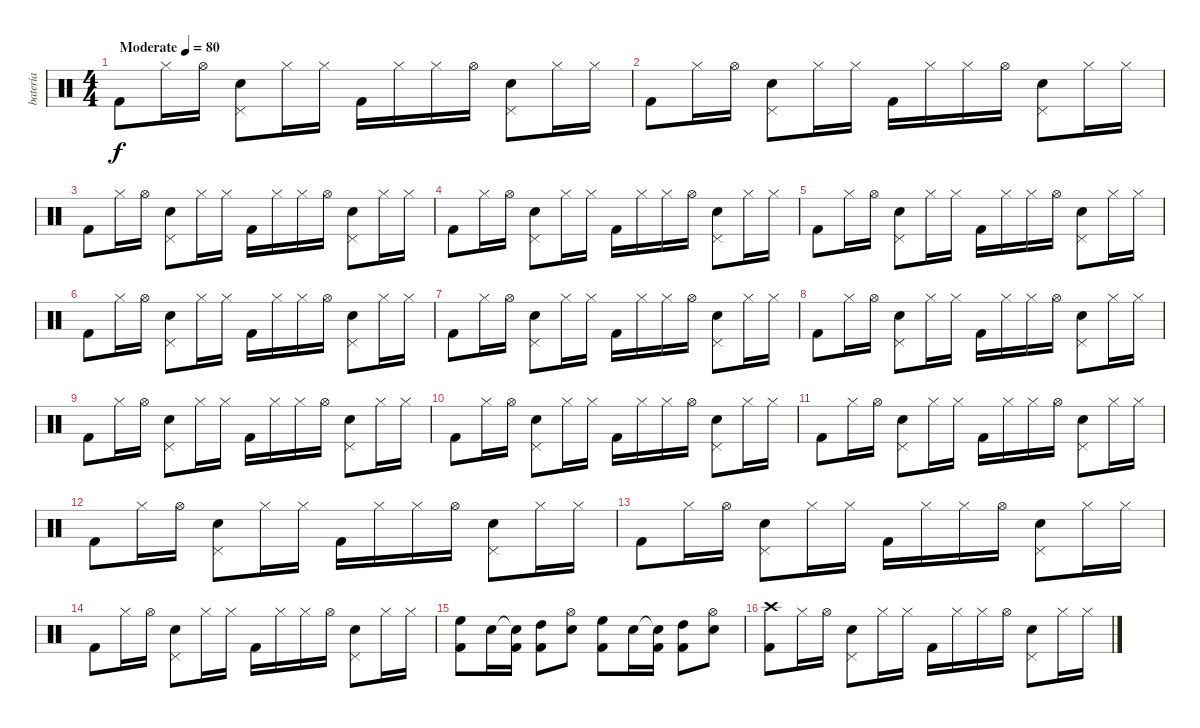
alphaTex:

\track ("batería" "batería") {instrument percussion}
\staff {score}
\articulation defaults
\ts (4 4)
\tempo (80 "Moderate")
\clef neutral
\ks c "Kick (hit) 2".8{dy f} "Hi-Hat (closed)".16 "Hi-Hat (open)".16
("Snare (hit) 2" "Pedal Hi-Hat (hit)").8 "Hi-Hat (closed)".16 "Hi-Hat (closed)".16 "Kick (hit) 2".16 "Hi-Hat (closed)".16 "Hi-Hat (closed)".16 "Hi-Hat (open)".16 ("Snare (hit) 2" "Pedal Hi-Hat (hit)").8 "Hi-Hat (closed)".16 "Hi-Hat (closed)".16 |
"Kick (hit) 2".8 "Hi-Hat (closed)".16 "Hi-Hat (open)".16 ("Snare (hit) 2" "Pedal Hi-Hat (hit)").8 "Hi-Hat (closed)".16 "Hi-Hat (closed)".16 "Kick (hit) 2".16 "Hi-Hat (closed)".16 "Hi-Hat (closed)".16 "Hi-Hat (open)".16 ("Snare (hit) 2" "Pedal Hi-Hat (hit)").8 "Hi-Hat (closed)".16 "Hi-Hat (closed)".16 |
"Kick (hit) 2".8 "Hi-Hat (closed)".16 "Hi-Hat (open)".16 ("Snare (hit) 2" "Pedal Hi-Hat (hit)").8 "Hi-Hat (closed)".16 "Hi-Hat (closed)".16 "Kick (hit) 2".16 "Hi-Hat (closed)".16 "Hi-Hat (closed)".16 "Hi-Hat (open)".16 ("Snare (hit) 2" "Pedal Hi-Hat (hit)").8 "Hi-Hat (closed)".16 "Hi-Hat (closed)".16 |
"Kick (hit) 2".8 "Hi-Hat (closed)".16 "Hi-Hat (open)".16 ("Snare (hit) 2" "Pedal Hi-Hat (hit)").8 "Hi-Hat (closed)".16 "Hi-Hat (closed)".16 "Kick (hit) 2".16 "Hi-Hat (closed)".16 "Hi-Hat (closed)".16 "Hi-Hat (open)".16 ("Snare (hit) 2" "Pedal Hi-Hat (hit)").8 "Hi-Hat (closed)".16 "Hi-Hat (closed)".16 |
"Kick (hit) 2".8 "Hi-Hat (closed)".16 "Hi-Hat (open)".16 ("Snare (hit) 2" "Pedal Hi-Hat (hit)").8 "Hi-Hat (closed)".16 "Hi-Hat (closed)".16 "Kick (hit) 2".16 "Hi-Hat (closed)".16 "Hi-Hat (closed)".16 "Hi-Hat (open)".16 ("Snare (hit) 2" "Pedal Hi-Hat (hit)").8 "Hi-Hat (closed)".16 "Hi-Hat (closed)".16 |
"Kick (hit) 2".8 "Hi-Hat (closed)".16 "Hi-Hat (open)".16 ("Snare (hit) 2" "Pedal Hi-Hat (hit)").8 "Hi-Hat (closed)".16 "Hi-Hat (closed)".16 "Kick (hit) 2".16 "Hi-Hat (closed)".16 "Hi-Hat (closed)".16 "Hi-Hat (open)".16 ("Snare (hit) 2" "Pedal Hi-Hat (hit)").8 "Hi-Hat (closed)".16 "Hi-Hat (closed)".16 |
"Kick (hit) 2".8 "Hi-Hat (closed)".16 "Hi-Hat (open)".16 ("Snare (hit) 2" "Pedal Hi-Hat (hit)").8 "Hi-Hat (closed)".16 "Hi-Hat (closed)".16 "Kick (hit) 2".16 "Hi-Hat (closed)".16 "Hi-Hat (closed)".16 "Hi-Hat (open)".16 ("Snare (hit) 2" "Pedal Hi-Hat (hit)").8 "Hi-Hat (closed)".16 "Hi-Hat (closed)".16 |
"Kick (hit) 2".8 "Hi-Hat (closed)".16 "Hi-Hat (open)".16 ("Snare (hit) 2" "Pedal Hi-Hat (hit)").8 "Hi-Hat (closed)".16 "Hi-Hat (closed)".16 "Kick (hit) 2".16 "Hi-Hat (closed)".16 "Hi-Hat (closed)".16 "Hi-Hat (open)".16 ("Snare (hit) 2" "Pedal Hi-Hat (hit)").8 "Hi-Hat (closed)".16 "Hi-Hat (closed)".16 |
"Kick (hit) 2".8 "Hi-Hat (closed)".16 "Hi-Hat (open)".16 ("Snare (hit) 2" "Pedal Hi-Hat (hit)").8 "Hi-Hat (closed)".16 "Hi-Hat (closed)".16 "Kick (hit) 2".16 "Hi-Hat (closed)".16 "Hi-Hat (closed)".16 "Hi-Hat (open)".16 ("Snare (hit) 2" "Pedal Hi-Hat (hit)").8 "Hi-Hat (closed)".16 "Hi-Hat (closed)".16 |
"Kick (hit) 2".8 "Hi-Hat (closed)".16 "Hi-Hat (open)".16 ("Snare (hit) 2" "Pedal Hi-Hat (hit)").8 "Hi-Hat (closed)".16 "Hi-Hat (closed)".16 "Kick (hit) 2".16 "Hi-Hat (closed)".16 "Hi-Hat (closed)".16 "Hi-Hat (open)".16 ("Snare (hit) 2" "Pedal Hi-Hat (hit)").8 "Hi-Hat (closed)".16 "Hi-Hat (closed)".16 |
"Kick (hit) 2".8 "Hi-Hat (closed)".16 "Hi-Hat (open)".16 ("Snare (hit) 2" "Pedal Hi-Hat (hit)").8 "Hi-Hat (closed)".16 "Hi-Hat (closed)".16 "Kick (hit) 2".16 "Hi-Hat (closed)".16 "Hi-Hat (closed)".16 "Hi-Hat (open)".16 ("Snare (hit) 2" "Pedal Hi-Hat (hit)").8 "Hi-Hat (closed)".16 "Hi-Hat (closed)".16 |
"Kick (hit) 2".8 "Hi-Hat (closed)".16 "Hi-Hat (open)".16 ("Snare (hit) 2" "Pedal Hi-Hat (hit)").8 "Hi-Hat (closed)".16 "Hi-Hat (closed)".16 "Kick (hit) 2".16 "Hi-Hat (closed)".16 "Hi-Hat (closed)".16 "Hi-Hat (open)".16 ("Snare (hit) 2" "Pedal Hi-Hat (hit)").8 "Hi-Hat (closed)".16 "Hi-Hat (closed)".16 |
"Kick (hit) 2".8 "Hi-Hat (closed)".16 "Hi-Hat (open)".16 ("Snare (hit) 2" "Pedal Hi-Hat (hit)").8 "Hi-Hat (closed)".16 "Hi-Hat (closed)".16 "Kick (hit) 2".16 "Hi-Hat (closed)".16 "Hi-Hat (closed)".16 "Hi-Hat (open)".16 ("Snare (hit) 2" "Pedal Hi-Hat (hit)").8 "Hi-Hat (closed)".16 "Hi-Hat (closed)".16 |
"Kick (hit) 2".8 "Hi-Hat (closed)".16 "Hi-Hat (open)".16 ("Snare (hit) 2" "Pedal Hi-Hat (hit)").8 "Hi-Hat (closed)".16 "Hi-Hat (closed)".16 "Kick (hit) 2".16 "Hi-Hat (closed)".16 "Hi-Hat (closed)".16 "Hi-Hat (open)".16 ("Snare (hit) 2" "Pedal Hi-Hat (hit)").8 "Hi-Hat (closed)".16 "Hi-Hat (closed)".16 |
("High Floor Tom (hit)" "Kick (hit) 2").8 "Snare (hit) 2".16 ("Snare (hit) 2"{t} "Kick (hit) 2").16 ("High Tom (hit)" "Kick (hit) 2").8 ("Snare (hit) 2" "Hi-Hat (open)").8 ("High Floor Tom (hit)" "Kick (hit) 2").8 "Snare (hit) 2".16 ("Snare (hit) 2"{t} "Kick (hit) 2").16 ("High Tom (hit)" "Kick (hit) 2").8 ("Snare (hit) 2" "Hi-Hat (open)").8 |
("Kick (hit) 2" "Crash high (hit)").8 "Hi-Hat (closed)".16 "Hi-Hat (open)".16 ("Snare (hit) 2" "Pedal Hi-Hat (hit)").8 "Hi-Hat (closed)".16 "Hi-Hat (closed)".16 "Kick (hit) 2".16 "Hi-Hat (closed)".16 "Hi-Hat (closed)".16 "Hi-Hat (open)".16 ("Snare (hit) 2" "Pedal Hi-Hat (hit)").8 "Hi-Hat (closed)".16 "Hi-Hat (closed)".16
